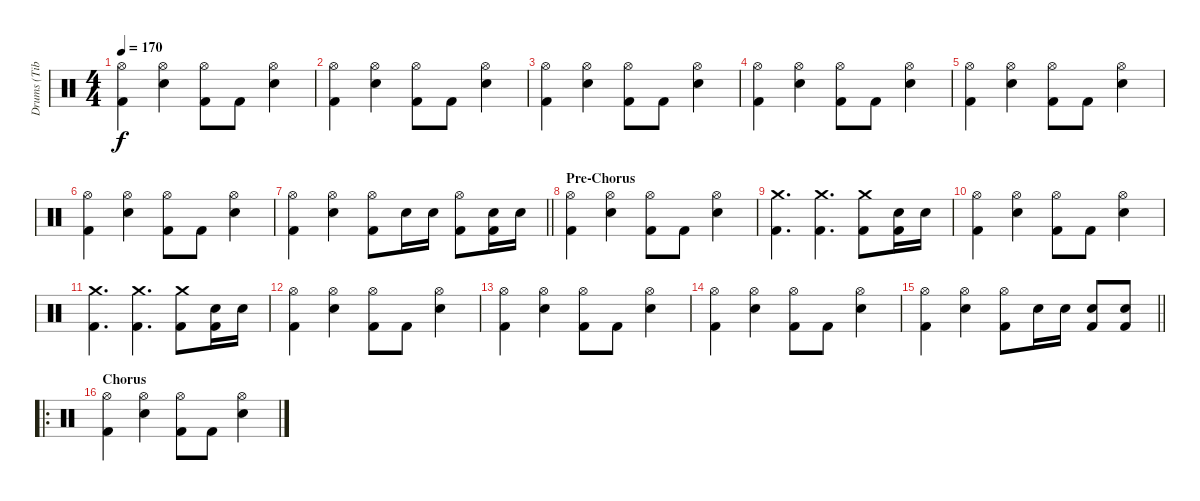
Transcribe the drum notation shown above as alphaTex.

\track ("Drums (Tibcsi Kiss)" "Drums (Tib") {instrument percussion}
\staff {score}
\articulation defaults
\ts (4 4)
\tempo 170
\clef neutral
\ks c
("Hi-Hat (open)" "Kick (hit) 2").4{dy f} ("Hi-Hat (open)" "Snare (hit) 2").4 ("Hi-Hat (open)" "Kick (hit) 2").8 "Kick (hit) 2".8 ("Hi-Hat (open)" "Snare (hit) 2").4 |
("Hi-Hat (open)" "Kick (hit) 2").4 ("Hi-Hat (open)" "Snare (hit) 2").4 ("Hi-Hat (open)" "Kick (hit) 2").8 "Kick (hit) 2".8 ("Hi-Hat (open)" "Snare (hit) 2").4 |
("Hi-Hat (open)" "Kick (hit) 2").4 ("Hi-Hat (open)" "Snare (hit) 2").4 ("Hi-Hat (open)" "Kick (hit) 2").8 "Kick (hit) 2".8 ("Hi-Hat (open)" "Snare (hit) 2").4 |
("Hi-Hat (open)" "Kick (hit) 2").4 ("Hi-Hat (open)" "Snare (hit) 2").4 ("Hi-Hat (open)" "Kick (hit) 2").8 "Kick (hit) 2".8 ("Hi-Hat (open)" "Snare (hit) 2").4 |
("Hi-Hat (open)" "Kick (hit) 2").4 ("Hi-Hat (open)" "Snare (hit) 2").4 ("Hi-Hat (open)" "Kick (hit) 2").8 "Kick (hit) 2".8 ("Hi-Hat (open)" "Snare (hit) 2").4 |
("Hi-Hat (open)" "Kick (hit) 2").4 ("Hi-Hat (open)" "Snare (hit) 2").4 ("Hi-Hat (open)" "Kick (hit) 2").8 "Kick (hit) 2".8 ("Hi-Hat (open)" "Snare (hit) 2").4 |
\barLineRight lightlight
("Hi-Hat (open)" "Kick (hit) 2").4 ("Hi-Hat (open)" "Snare (hit) 2").4 ("Hi-Hat (open)" "Kick (hit) 2").8 "Snare (hit) 2".16 "Snare (hit) 2".16 ("Hi-Hat (open)" "Kick (hit) 2").8 ("Snare (hit) 2" "Kick (hit) 2").16 "Snare (hit) 2".16 |
\section ("" "Pre-Chorus")
("Hi-Hat (open)" "Kick (hit) 2").4 ("Hi-Hat (open)" "Snare (hit) 2").4 ("Hi-Hat (open)" "Kick (hit) 2").8 "Kick (hit) 2".8 ("Hi-Hat (open)" "Snare (hit) 2").4 |
("Crash medium (hit)" "Kick (hit) 2").4{d} ("Crash medium (hit)" "Kick (hit) 2").4{d} ("Crash medium (hit)" "Kick (hit) 2").8 ("Snare (hit) 2" "Kick (hit) 2").16 "Snare (hit) 2".16 |
("Hi-Hat (open)" "Kick (hit) 2").4 ("Hi-Hat (open)" "Snare (hit) 2").4 ("Hi-Hat (open)" "Kick (hit) 2").8 "Kick (hit) 2".8 ("Hi-Hat (open)" "Snare (hit) 2").4 |
("Crash medium (hit)" "Kick (hit) 2").4{d} ("Crash medium (hit)" "Kick (hit) 2").4{d} ("Crash medium (hit)" "Kick (hit) 2").8 ("Snare (hit) 2" "Kick (hit) 2").16 "Snare (hit) 2".16 |
("Hi-Hat (open)" "Kick (hit) 2").4 ("Hi-Hat (open)" "Snare (hit) 2").4 ("Hi-Hat (open)" "Kick (hit) 2").8 "Kick (hit) 2".8 ("Hi-Hat (open)" "Snare (hit) 2").4 |
("Hi-Hat (open)" "Kick (hit) 2").4 ("Hi-Hat (open)" "Snare (hit) 2").4 ("Hi-Hat (open)" "Kick (hit) 2").8 "Kick (hit) 2".8 ("Hi-Hat (open)" "Snare (hit) 2").4 |
("Hi-Hat (open)" "Kick (hit) 2").4 ("Hi-Hat (open)" "Snare (hit) 2").4 ("Hi-Hat (open)" "Kick (hit) 2").8 "Kick (hit) 2".8 ("Hi-Hat (open)" "Snare (hit) 2").4 |
\barLineRight lightlight
("Hi-Hat (open)" "Kick (hit) 2").4 ("Hi-Hat (open)" "Snare (hit) 2").4 ("Hi-Hat (open)" "Kick (hit) 2").8 "Snare (hit) 2".16 "Snare (hit) 2".16 ("Snare (hit) 2" "Kick (hit) 2").8 ("Snare (hit) 2" "Kick (hit) 2").8 |
\ro
\section ("" "Chorus")
("Hi-Hat (open)" "Kick (hit) 2").4 ("Hi-Hat (open)" "Snare (hit) 2").4 ("Hi-Hat (open)" "Kick (hit) 2").8 "Kick (hit) 2".8 ("Hi-Hat (open)" "Snare (hit) 2").4
